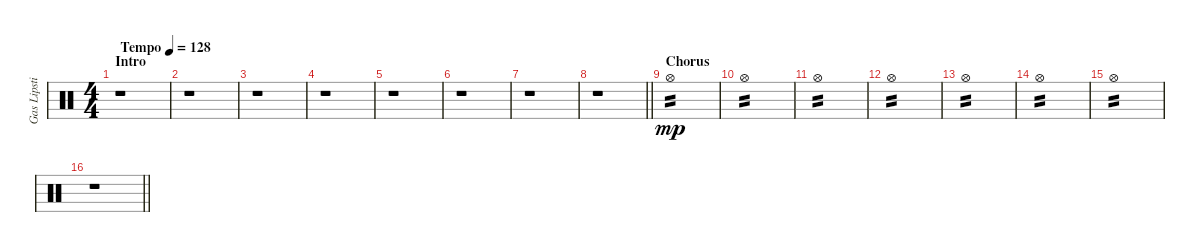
\track ("Gas Lipstick (Drums)" "Gas Lipsti") {instrument percussion}
\staff {score}
\articulation defaults
\ts (4 4)
\section ("" "Intro")
\tempo (128 "Tempo")
\clef neutral
\ks c
r.1{dy mp} |
r.1 |
r.1 |
r.1 |
r.1 |
r.1 |
r.1 |
\barLineRight lightlight
r.1 |
\section ("" "Chorus")
"Hi-Hat (open)".1{tp 2} |
"Hi-Hat (open)".1{tp 2} |
"Hi-Hat (open)".1{tp 2} |
"Hi-Hat (open)".1{tp 2} |
"Hi-Hat (open)".1{tp 2} |
"Hi-Hat (open)".1{tp 2} |
"Hi-Hat (open)".1{tp 2} |
\barLineRight lightlight
r.1
